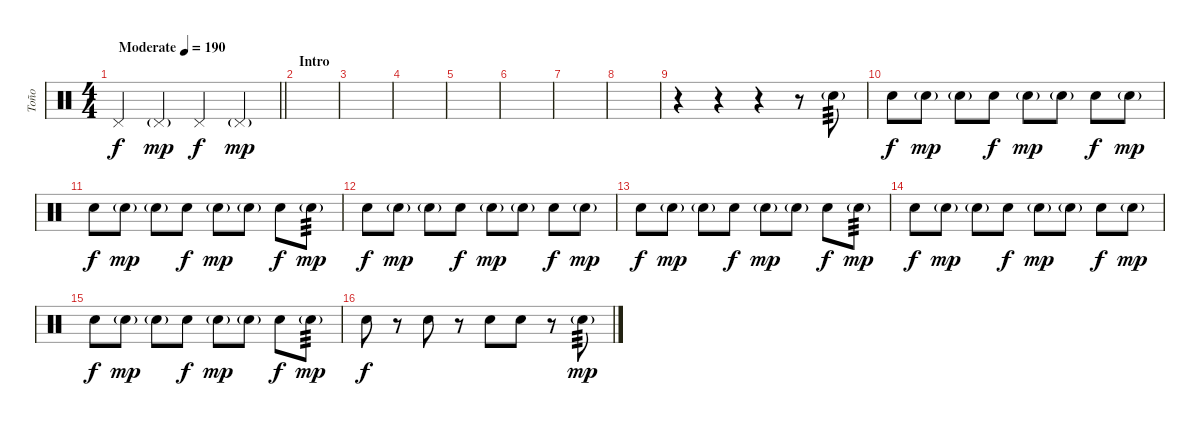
\track ("Toño" "Toño") {instrument percussion}
\staff {score}
\articulation defaults
\ts (4 4)
\tempo (190 "Moderate")
\clef neutral
\barLineRight lightlight
\ks c "Pedal Hi-Hat (hit)".4{dy f} "Pedal Hi-Hat (hit)"{g}.4{dy mp} "Pedal Hi-Hat (hit)".4{dy f} "Pedal Hi-Hat (hit)"{g}.4{dy mp}
|
\section ("" "Intro")
|
|
|
|
|
|
|
r.4 r.4 r.4 r.8 "Snare (hit) 2"{g}.8{tp 3 volume 7} |
"Snare (hit) 2".8{dy f} "Snare (hit) 2"{g}.8{dy mp} "Snare (hit) 2"{g}.8 "Snare (hit) 2".8{dy f} "Snare (hit) 2"{g}.8{dy mp} "Snare (hit) 2"{g}.8 "Snare (hit) 2".8{dy f} "Snare (hit) 2"{g}.8{dy mp} |
"Snare (hit) 2".8{dy f} "Snare (hit) 2"{g}.8{dy mp} "Snare (hit) 2"{g}.8 "Snare (hit) 2".8{dy f} "Snare (hit) 2"{g}.8{dy mp} "Snare (hit) 2"{g}.8 "Snare (hit) 2".8{dy f} "Snare (hit) 2"{g}.8{tp 3 dy mp} |
"Snare (hit) 2".8{dy f} "Snare (hit) 2"{g}.8{dy mp} "Snare (hit) 2"{g}.8 "Snare (hit) 2".8{dy f} "Snare (hit) 2"{g}.8{dy mp} "Snare (hit) 2"{g}.8 "Snare (hit) 2".8{dy f} "Snare (hit) 2"{g}.8{dy mp} |
"Snare (hit) 2".8{dy f} "Snare (hit) 2"{g}.8{dy mp} "Snare (hit) 2"{g}.8 "Snare (hit) 2".8{dy f} "Snare (hit) 2"{g}.8{dy mp} "Snare (hit) 2"{g}.8 "Snare (hit) 2".8{dy f} "Snare (hit) 2"{g}.8{tp 3 dy mp} |
"Snare (hit) 2".8{dy f} "Snare (hit) 2"{g}.8{dy mp} "Snare (hit) 2"{g}.8 "Snare (hit) 2".8{dy f} "Snare (hit) 2"{g}.8{dy mp} "Snare (hit) 2"{g}.8 "Snare (hit) 2".8{dy f} "Snare (hit) 2"{g}.8{dy mp} |
"Snare (hit) 2".8{dy f} "Snare (hit) 2"{g}.8{dy mp} "Snare (hit) 2"{g}.8 "Snare (hit) 2".8{dy f} "Snare (hit) 2"{g}.8{dy mp} "Snare (hit) 2"{g}.8 "Snare (hit) 2".8{dy f} "Snare (hit) 2"{g}.8{tp 3 dy mp volume 13} |
"Snare (hit) 2".8{dy f} r.8 "Snare (hit) 2".8 r.8 "Snare (hit) 2".8 "Snare (hit) 2".8 r.8 "Snare (hit) 2"{g}.8{tp 3 dy mp}
